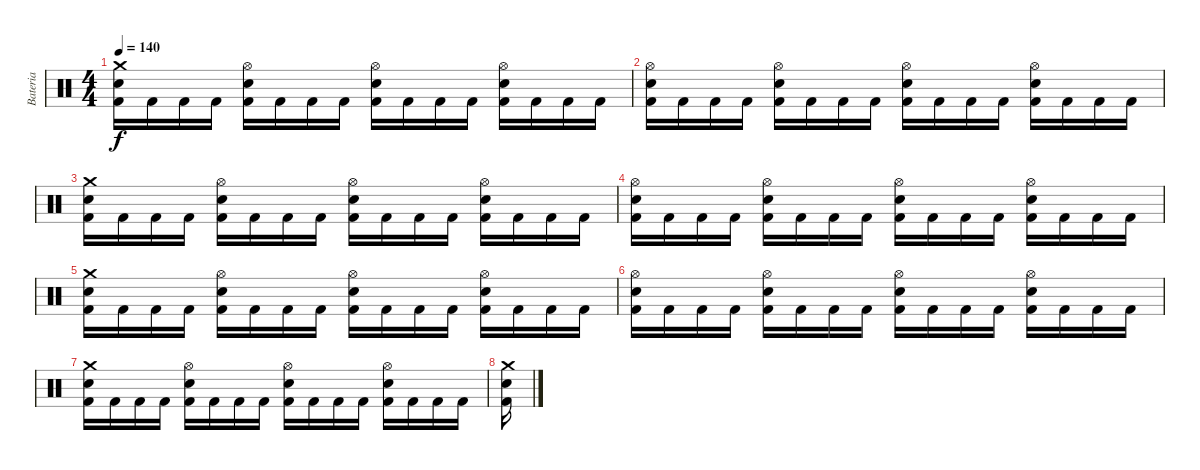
\track ("Bateria" "Bateria") {instrument percussion}
\staff {score}
\articulation defaults
\ts (4 4)
\tempo 140
\clef neutral
\ks c
("Crash medium (hit)" "Electric Snare (hit)" "Kick (hit) 2").16{dy f} "Kick (hit) 2".16 "Kick (hit) 2".16 "Kick (hit) 2".16 ("Hi-Hat (open)" "Electric Snare (hit)" "Kick (hit) 2").16 "Kick (hit) 2".16 "Kick (hit) 2".16 "Kick (hit) 2".16 ("Hi-Hat (open)" "Electric Snare (hit)" "Kick (hit) 2").16 "Kick (hit) 2".16 "Kick (hit) 2".16 "Kick (hit) 2".16 ("Hi-Hat (open)" "Electric Snare (hit)" "Kick (hit) 2").16 "Kick (hit) 2".16 "Kick (hit) 2".16 "Kick (hit) 2".16 |
("Hi-Hat (open)" "Electric Snare (hit)" "Kick (hit) 2").16 "Kick (hit) 2".16 "Kick (hit) 2".16 "Kick (hit) 2".16 ("Hi-Hat (open)" "Electric Snare (hit)" "Kick (hit) 2").16 "Kick (hit) 2".16 "Kick (hit) 2".16 "Kick (hit) 2".16 ("Hi-Hat (open)" "Electric Snare (hit)" "Kick (hit) 2").16 "Kick (hit) 2".16 "Kick (hit) 2".16 "Kick (hit) 2".16 ("Hi-Hat (open)" "Electric Snare (hit)" "Kick (hit) 2").16 "Kick (hit) 2".16 "Kick (hit) 2".16 "Kick (hit) 2".16 |
("Crash medium (hit)" "Electric Snare (hit)" "Kick (hit) 2").16 "Kick (hit) 2".16 "Kick (hit) 2".16 "Kick (hit) 2".16 ("Hi-Hat (open)" "Electric Snare (hit)" "Kick (hit) 2").16 "Kick (hit) 2".16 "Kick (hit) 2".16 "Kick (hit) 2".16 ("Hi-Hat (open)" "Electric Snare (hit)" "Kick (hit) 2").16 "Kick (hit) 2".16 "Kick (hit) 2".16 "Kick (hit) 2".16 ("Hi-Hat (open)" "Electric Snare (hit)" "Kick (hit) 2").16 "Kick (hit) 2".16 "Kick (hit) 2".16 "Kick (hit) 2".16 |
("Hi-Hat (open)" "Electric Snare (hit)" "Kick (hit) 2").16 "Kick (hit) 2".16 "Kick (hit) 2".16 "Kick (hit) 2".16 ("Hi-Hat (open)" "Electric Snare (hit)" "Kick (hit) 2").16 "Kick (hit) 2".16 "Kick (hit) 2".16 "Kick (hit) 2".16 ("Hi-Hat (open)" "Electric Snare (hit)" "Kick (hit) 2").16 "Kick (hit) 2".16 "Kick (hit) 2".16 "Kick (hit) 2".16 ("Hi-Hat (open)" "Electric Snare (hit)" "Kick (hit) 2").16 "Kick (hit) 2".16 "Kick (hit) 2".16 "Kick (hit) 2".16 |
("Crash medium (hit)" "Electric Snare (hit)" "Kick (hit) 2").16 "Kick (hit) 2".16 "Kick (hit) 2".16 "Kick (hit) 2".16 ("Hi-Hat (open)" "Electric Snare (hit)" "Kick (hit) 2").16 "Kick (hit) 2".16 "Kick (hit) 2".16 "Kick (hit) 2".16 ("Hi-Hat (open)" "Electric Snare (hit)" "Kick (hit) 2").16 "Kick (hit) 2".16 "Kick (hit) 2".16 "Kick (hit) 2".16 ("Hi-Hat (open)" "Electric Snare (hit)" "Kick (hit) 2").16 "Kick (hit) 2".16 "Kick (hit) 2".16 "Kick (hit) 2".16 |
("Hi-Hat (open)" "Electric Snare (hit)" "Kick (hit) 2").16 "Kick (hit) 2".16 "Kick (hit) 2".16 "Kick (hit) 2".16 ("Hi-Hat (open)" "Electric Snare (hit)" "Kick (hit) 2").16 "Kick (hit) 2".16 "Kick (hit) 2".16 "Kick (hit) 2".16 ("Hi-Hat (open)" "Electric Snare (hit)" "Kick (hit) 2").16 "Kick (hit) 2".16 "Kick (hit) 2".16 "Kick (hit) 2".16 ("Hi-Hat (open)" "Electric Snare (hit)" "Kick (hit) 2").16 "Kick (hit) 2".16 "Kick (hit) 2".16 "Kick (hit) 2".16 |
("Crash medium (hit)" "Electric Snare (hit)" "Kick (hit) 2").16 "Kick (hit) 2".16 "Kick (hit) 2".16 "Kick (hit) 2".16 ("Hi-Hat (open)" "Electric Snare (hit)" "Kick (hit) 2").16 "Kick (hit) 2".16 "Kick (hit) 2".16 "Kick (hit) 2".16 ("Hi-Hat (open)" "Electric Snare (hit)" "Kick (hit) 2").16 "Kick (hit) 2".16 "Kick (hit) 2".16 "Kick (hit) 2".16 ("Hi-Hat (open)" "Electric Snare (hit)" "Kick (hit) 2").16 "Kick (hit) 2".16 "Kick (hit) 2".16 "Kick (hit) 2".16 |
("Crash medium (hit)" "Electric Snare (hit)" "Kick (hit) 2").16
